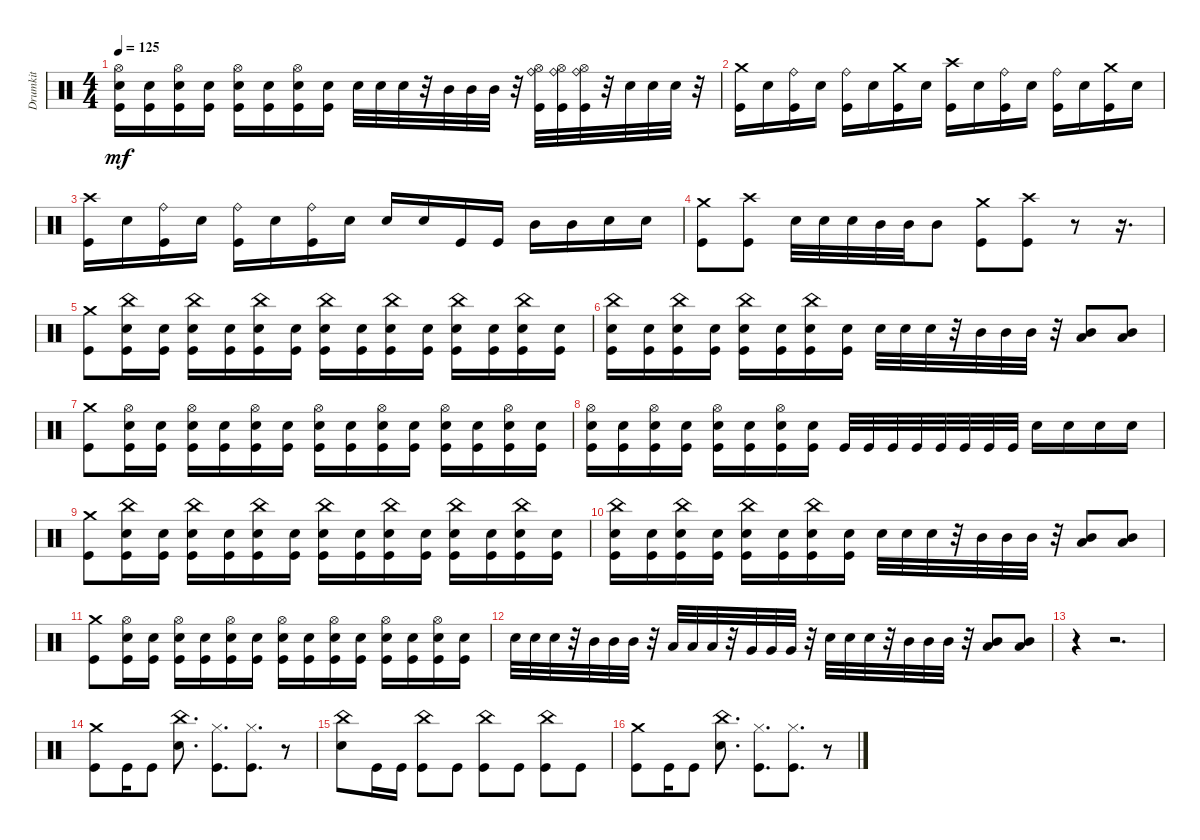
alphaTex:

\track ("Drumkit" "Drumkit") {instrument percussion}
\staff {score}
\articulation defaults
\ts (4 4)
\tempo 125
\clef neutral
\ks c
("Kick (hit)" "Snare (hit) 2" "Hi-Hat (open)").16{dy mf} ("Kick (hit)" "Snare (hit) 2").16 ("Kick (hit)" "Snare (hit) 2" "Hi-Hat (open)").16 ("Kick (hit)" "Snare (hit) 2").16 ("Kick (hit)" "Snare (hit) 2" "Hi-Hat (open)").16 ("Kick (hit)" "Snare (hit) 2").16 ("Kick (hit)" "Snare (hit) 2" "Hi-Hat (open)").16 ("Kick (hit)" "Snare (hit) 2").16 "Snare (hit) 2".32 "Snare (hit) 2".32 "Snare (hit) 2".32 r.32 "Mid Tom (hit)".32 "Mid Tom (hit)".32 "Mid Tom (hit)".32 r.32 ("Kick (hit)" "Ride (bell)" "Hi-Hat (open)").32 ("Kick (hit)" "Ride (bell)" "Hi-Hat (open)").32 ("Kick (hit)" "Ride (bell)" "Hi-Hat (open)").32 r.32 "Snare (hit) 2".32 "Snare (hit) 2".32 "Snare (hit) 2".32 r.32 |
("Kick (hit)" "Crash medium (hit)").16 "Snare (hit) 2".16 ("Kick (hit)" "Ride (bell)").16 "Snare (hit) 2".16 ("Kick (hit)" "Ride (bell)").16 "Snare (hit) 2".16 ("Kick (hit)" "Crash medium (hit)").16 "Snare (hit) 2".16 ("Kick (hit)" "Crash high (hit)").16 "Snare (hit) 2".16 ("Kick (hit)" "Ride (bell)").16 "Snare (hit) 2".16 ("Kick (hit)" "Ride (bell)").16 "Snare (hit) 2".16 ("Kick (hit)" "Crash medium (hit)").16 "Snare (hit) 2".16 |
("Kick (hit)" "Crash high (hit)").16 "Snare (hit) 2".16 ("Kick (hit)" "Ride (bell)").16 "Snare (hit) 2".16 ("Kick (hit)" "Ride (bell)").16 "Snare (hit) 2".16 ("Kick (hit)" "Ride (bell)").16 "Snare (hit) 2".16 "Snare (hit) 2".16 "Snare (hit) 2".16 "Kick (hit)".16 "Kick (hit)".16 "Mid Tom (hit)".16 "Mid Tom (hit)".16 "Snare (hit) 2".16 "Snare (hit) 2".16 |
("Kick (hit)" "Crash medium (hit)").8 ("Kick (hit)" "Crash high (hit)").8 "Snare (hit) 2".32 "Snare (hit) 2".32 "Snare (hit) 2".32 "Mid Tom (hit)".32 "Mid Tom (hit)".32 "Mid Tom (hit)".8 ("Kick (hit)" "Crash medium (hit)").8 ("Kick (hit)" "Crash high (hit)").8 r.8 r.16{d} |
("Kick (hit)" "Crash medium (hit)").8 ("Kick (hit)" "Snare (hit) 2" "China (hit)").16 ("Kick (hit)" "Snare (hit) 2").16 ("Kick (hit)" "Snare (hit) 2" "China (hit)").16 ("Kick (hit)" "Snare (hit) 2").16 ("Kick (hit)" "Snare (hit) 2" "China (hit)").16 ("Kick (hit)" "Snare (hit) 2").16 ("Kick (hit)" "Snare (hit) 2" "China (hit)").16 ("Kick (hit)" "Snare (hit) 2").16 ("Kick (hit)" "Snare (hit) 2" "China (hit)").16 ("Kick (hit)" "Snare (hit) 2").16 ("Kick (hit)" "Snare (hit) 2" "China (hit)").16 ("Kick (hit)" "Snare (hit) 2").16 ("Kick (hit)" "Snare (hit) 2" "China (hit)").16 ("Kick (hit)" "Snare (hit) 2").16 |
("Kick (hit)" "Snare (hit) 2" "China (hit)").16 ("Kick (hit)" "Snare (hit) 2").16 ("Kick (hit)" "Snare (hit) 2" "China (hit)").16 ("Kick (hit)" "Snare (hit) 2").16 ("Kick (hit)" "Snare (hit) 2" "China (hit)").16 ("Kick (hit)" "Snare (hit) 2").16 ("Kick (hit)" "Snare (hit) 2" "China (hit)").16 ("Kick (hit)" "Snare (hit) 2").16 "Snare (hit) 2".32 "Snare (hit) 2".32 "Snare (hit) 2".32 r.32 "Mid Tom (hit)".32 "Mid Tom (hit)".32 "Mid Tom (hit)".32 r.32 ("Mid Tom (hit)" "Low Floor Tom (hit)").8 ("Mid Tom (hit)" "Low Floor Tom (hit)").8 |
("Kick (hit)" "Crash medium (hit)").8 ("Kick (hit)" "Snare (hit) 2" "Hi-Hat (open)").16 ("Kick (hit)" "Snare (hit) 2").16 ("Kick (hit)" "Snare (hit) 2" "Hi-Hat (open)").16 ("Kick (hit)" "Snare (hit) 2").16 ("Kick (hit)" "Snare (hit) 2" "Hi-Hat (open)").16 ("Kick (hit)" "Snare (hit) 2").16 ("Kick (hit)" "Snare (hit) 2" "Hi-Hat (open)").16 ("Kick (hit)" "Snare (hit) 2").16 ("Kick (hit)" "Snare (hit) 2" "Hi-Hat (open)").16 ("Kick (hit)" "Snare (hit) 2").16 ("Kick (hit)" "Snare (hit) 2" "Hi-Hat (open)").16 ("Kick (hit)" "Snare (hit) 2").16 ("Kick (hit)" "Snare (hit) 2" "Hi-Hat (open)").16 ("Kick (hit)" "Snare (hit) 2").16 |
("Kick (hit)" "Snare (hit) 2" "Hi-Hat (open)").16 ("Kick (hit)" "Snare (hit) 2").16 ("Kick (hit)" "Snare (hit) 2" "Hi-Hat (open)").16 ("Kick (hit)" "Snare (hit) 2").16 ("Kick (hit)" "Snare (hit) 2" "Hi-Hat (open)").16 ("Kick (hit)" "Snare (hit) 2").16 ("Kick (hit)" "Snare (hit) 2" "Hi-Hat (open)").16 ("Kick (hit)" "Snare (hit) 2").16 "Kick (hit)".32 "Kick (hit)".32 "Kick (hit)".32 "Kick (hit)".32 "Kick (hit)".32 "Kick (hit)".32 "Kick (hit)".32 "Kick (hit)".32 "Snare (hit) 2".16 "Snare (hit) 2".16 "Snare (hit) 2".16 "Snare (hit) 2".16 |
("Kick (hit)" "Crash medium (hit)").8 ("Kick (hit)" "Snare (hit) 2" "China (hit)").16 ("Kick (hit)" "Snare (hit) 2").16 ("Kick (hit)" "Snare (hit) 2" "China (hit)").16 ("Kick (hit)" "Snare (hit) 2").16 ("Kick (hit)" "Snare (hit) 2" "China (hit)").16 ("Kick (hit)" "Snare (hit) 2").16 ("Kick (hit)" "Snare (hit) 2" "China (hit)").16 ("Kick (hit)" "Snare (hit) 2").16 ("Kick (hit)" "Snare (hit) 2" "China (hit)").16 ("Kick (hit)" "Snare (hit) 2").16 ("Kick (hit)" "Snare (hit) 2" "China (hit)").16 ("Kick (hit)" "Snare (hit) 2").16 ("Kick (hit)" "Snare (hit) 2" "China (hit)").16 ("Kick (hit)" "Snare (hit) 2").16 |
("Kick (hit)" "Snare (hit) 2" "China (hit)").16 ("Kick (hit)" "Snare (hit) 2").16 ("Kick (hit)" "Snare (hit) 2" "China (hit)").16 ("Kick (hit)" "Snare (hit) 2").16 ("Kick (hit)" "Snare (hit) 2" "China (hit)").16 ("Kick (hit)" "Snare (hit) 2").16 ("Kick (hit)" "Snare (hit) 2" "China (hit)").16 ("Kick (hit)" "Snare (hit) 2").16 "Snare (hit) 2".32 "Snare (hit) 2".32 "Snare (hit) 2".32 r.32 "Mid Tom (hit)".32 "Mid Tom (hit)".32 "Mid Tom (hit)".32 r.32 ("Mid Tom (hit)" "Low Floor Tom (hit)").8 ("Mid Tom (hit)" "Low Floor Tom (hit)").8 |
("Kick (hit)" "Crash medium (hit)").8 ("Kick (hit)" "Snare (hit) 2" "Hi-Hat (open)").16 ("Kick (hit)" "Snare (hit) 2").16 ("Kick (hit)" "Snare (hit) 2" "Hi-Hat (open)").16 ("Kick (hit)" "Snare (hit) 2").16 ("Kick (hit)" "Snare (hit) 2" "Hi-Hat (open)").16 ("Kick (hit)" "Snare (hit) 2").16 ("Kick (hit)" "Snare (hit) 2" "Hi-Hat (open)").16 ("Kick (hit)" "Snare (hit) 2").16 ("Kick (hit)" "Snare (hit) 2" "Hi-Hat (open)").16 ("Kick (hit)" "Snare (hit) 2").16 ("Kick (hit)" "Snare (hit) 2" "Hi-Hat (open)").16 ("Kick (hit)" "Snare (hit) 2").16 ("Kick (hit)" "Snare (hit) 2" "Hi-Hat (open)").16 ("Kick (hit)" "Snare (hit) 2").16 |
"Snare (hit) 2".32 "Snare (hit) 2".32 "Snare (hit) 2".32 r.32 "Mid Tom (hit)".32 "Mid Tom (hit)".32 "Mid Tom (hit)".32 r.32 "Low Tom (hit)".32 "Low Tom (hit)".32 "Low Tom (hit)".32 r.32 "Very Low Tom (hit)".32 "Very Low Tom (hit)".32 "Very Low Tom (hit)".32 r.32 "Snare (hit) 2".32 "Snare (hit) 2".32 "Snare (hit) 2".32 r.32 "Mid Tom (hit)".32 "Mid Tom (hit)".32 "Mid Tom (hit)".32 r.32 ("Low Floor Tom (hit)" "Mid Tom (hit)").8 ("Low Floor Tom (hit)" "Mid Tom (hit)").8 |
r.4 r.2{d} |
("Kick (hit)" "Crash medium (hit)").8 "Kick (hit)".16 "Kick (hit)".8 ("Snare (hit) 2" "China (hit)").8{d} ("Kick (hit)" "Hi-Hat (closed)").8{d} ("Kick (hit)" "Hi-Hat (closed)").8{d} r.8 |
("Snare (hit) 2" "China (hit)").8 "Kick (hit)".16 "Kick (hit)".16 ("Kick (hit)" "China (hit)").8 "Kick (hit)".8 ("Kick (hit)" "China (hit)").8 "Kick (hit)".8 ("Kick (hit)" "China (hit)").8 "Kick (hit)".8 |
("Kick (hit)" "Crash medium (hit)").8 "Kick (hit)".16 "Kick (hit)".8 ("Snare (hit) 2" "China (hit)").8{d} ("Kick (hit)" "Hi-Hat (closed)").8{d} ("Kick (hit)" "Hi-Hat (closed)").8{d} r.8
